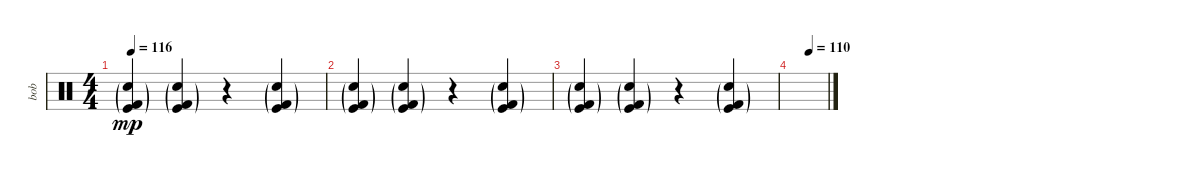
\track ("bob" "bob") {instrument percussion}
\staff {score}
\articulation defaults
\ts (4 4)
\tempo 116
\clef neutral
\ks c
("Snare (hit) 2"{g} "Kick (hit) 2"{g} "Kick (hit)"{g}).4{dy mp} ("Snare (hit) 2"{g} "Kick (hit) 2"{g} "Kick (hit)"{g}).4 r.4 ("Snare (hit) 2"{g} "Kick (hit) 2"{g} "Kick (hit)"{g}).4 |
("Snare (hit) 2"{g} "Kick (hit) 2"{g} "Kick (hit)"{g}).4 ("Snare (hit) 2"{g} "Kick (hit) 2"{g} "Kick (hit)"{g}).4 r.4 ("Snare (hit) 2"{g} "Kick (hit) 2"{g} "Kick (hit)"{g}).4 |
("Snare (hit) 2"{g} "Kick (hit) 2"{g} "Kick (hit)"{g}).4 ("Snare (hit) 2"{g} "Kick (hit) 2"{g} "Kick (hit)"{g}).4 r.4 ("Snare (hit) 2"{g} "Kick (hit) 2"{g} "Kick (hit)"{g}).4 |
\tempo (110 0.5)
